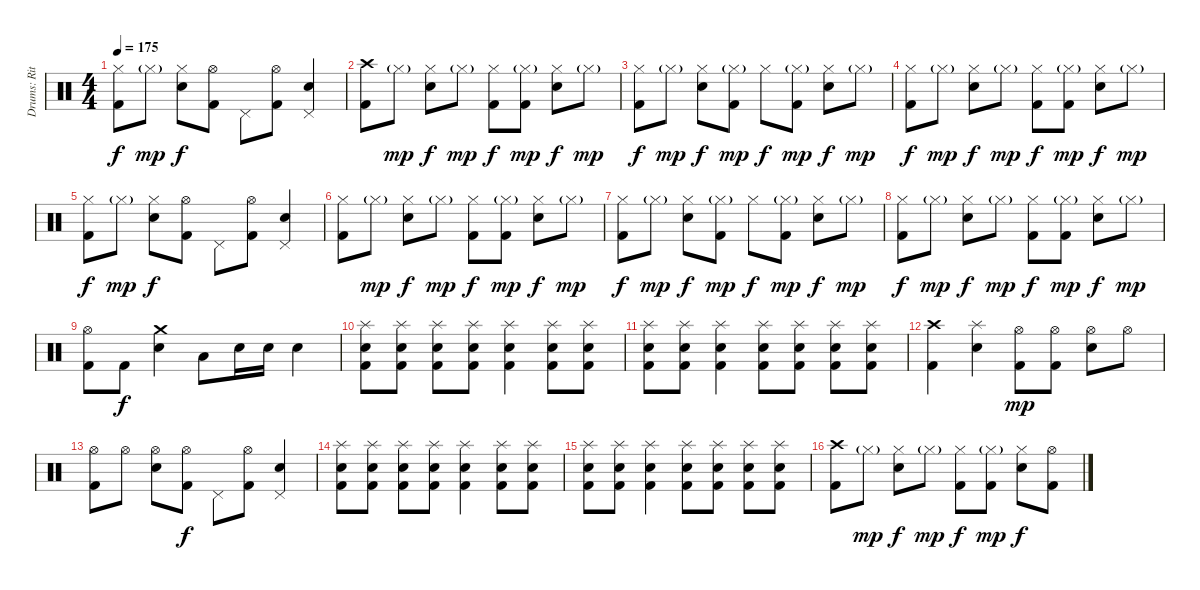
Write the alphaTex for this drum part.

\track ("Drums: Ritsu Tainaka" "Drums: Rit") {instrument percussion}
\staff {score}
\articulation defaults
\ts (4 4)
\tempo 175
\clef neutral
\ks c
("Hi-Hat (closed)" "Kick (hit) 2").8{dy f} "Hi-Hat (closed)"{g}.8{dy mp} ("Hi-Hat (closed)" "Snare (hit) 2").8{dy f} ("Hi-Hat (open)" "Kick (hit) 2").8 "Pedal Hi-Hat (hit)".8 ("Hi-Hat (open)" "Kick (hit) 2").8 ("Pedal Hi-Hat (hit)" "Snare (hit) 2").4 |
("Crash high (hit)" "Kick (hit) 2").8 "Hi-Hat (closed)"{g}.8{dy mp} ("Hi-Hat (closed)" "Snare (hit) 2").8{dy f} "Hi-Hat (closed)"{g}.8{dy mp} ("Hi-Hat (closed)" "Kick (hit) 2").8{dy f} ("Hi-Hat (closed)"{g} "Kick (hit) 2").8{dy mp} ("Hi-Hat (closed)" "Snare (hit) 2").8{dy f} "Hi-Hat (closed)"{g}.8{dy mp} |
("Hi-Hat (closed)" "Kick (hit) 2").8{dy f} "Hi-Hat (closed)"{g}.8{dy mp} ("Hi-Hat (closed)" "Snare (hit) 2").8{dy f} ("Hi-Hat (closed)"{g} "Kick (hit) 2").8{dy mp} "Hi-Hat (closed)".8{dy f} ("Hi-Hat (closed)"{g} "Kick (hit) 2").8{dy mp} ("Hi-Hat (closed)" "Snare (hit) 2").8{dy f} "Hi-Hat (closed)"{g}.8{dy mp} |
("Hi-Hat (closed)" "Kick (hit) 2").8{dy f} "Hi-Hat (closed)"{g}.8{dy mp} ("Hi-Hat (closed)" "Snare (hit) 2").8{dy f} "Hi-Hat (closed)"{g}.8{dy mp} ("Hi-Hat (closed)" "Kick (hit) 2").8{dy f} ("Hi-Hat (closed)"{g} "Kick (hit) 2").8{dy mp} ("Hi-Hat (closed)" "Snare (hit) 2").8{dy f} "Hi-Hat (closed)"{g}.8{dy mp} |
("Hi-Hat (closed)" "Kick (hit) 2").8{dy f} "Hi-Hat (closed)"{g}.8{dy mp} ("Hi-Hat (closed)" "Snare (hit) 2").8{dy f} ("Hi-Hat (open)" "Kick (hit) 2").8 "Pedal Hi-Hat (hit)".8 ("Hi-Hat (open)" "Kick (hit) 2").8 ("Pedal Hi-Hat (hit)" "Snare (hit) 2").4 |
("Hi-Hat (closed)" "Kick (hit) 2").8 "Hi-Hat (closed)"{g}.8{dy mp} ("Hi-Hat (closed)" "Snare (hit) 2").8{dy f} "Hi-Hat (closed)"{g}.8{dy mp} ("Hi-Hat (closed)" "Kick (hit) 2").8{dy f} ("Hi-Hat (closed)"{g} "Kick (hit) 2").8{dy mp} ("Hi-Hat (closed)" "Snare (hit) 2").8{dy f} "Hi-Hat (closed)"{g}.8{dy mp} |
("Hi-Hat (closed)" "Kick (hit) 2").8{dy f} "Hi-Hat (closed)"{g}.8{dy mp} ("Hi-Hat (closed)" "Snare (hit) 2").8{dy f} ("Hi-Hat (closed)"{g} "Kick (hit) 2").8{dy mp} "Hi-Hat (closed)".8{dy f} ("Hi-Hat (closed)"{g} "Kick (hit) 2").8{dy mp} ("Hi-Hat (closed)" "Snare (hit) 2").8{dy f} "Hi-Hat (closed)"{g}.8{dy mp} |
("Hi-Hat (closed)" "Kick (hit) 2").8{dy f} "Hi-Hat (closed)"{g}.8{dy mp} ("Hi-Hat (closed)" "Snare (hit) 2").8{dy f} "Hi-Hat (closed)"{g}.8{dy mp} ("Hi-Hat (closed)" "Kick (hit) 2").8{dy f} ("Hi-Hat (closed)"{g} "Kick (hit) 2").8{dy mp} ("Hi-Hat (closed)" "Snare (hit) 2").8{dy f} "Hi-Hat (closed)"{g}.8{dy mp} |
("Hi-Hat (open)" "Kick (hit) 2").8 "Kick (hit) 2".8{dy f} ("Crash medium (hit)" "Snare (hit) 2").4 "Low Tom (hit)".8 "Snare (hit) 2".16 "Snare (hit) 2".16 "Snare (hit) 2".4 |
("Splash (hit)" "Snare (hit) 2" "Kick (hit) 2").8 ("Splash (hit)" "Snare (hit) 2" "Kick (hit) 2").8 ("Splash (hit)" "Snare (hit) 2" "Kick (hit) 2").8 ("Splash (hit)" "Snare (hit) 2" "Kick (hit) 2").8 ("Splash (hit)" "Snare (hit) 2" "Kick (hit) 2").4 ("Splash (hit)" "Snare (hit) 2" "Kick (hit) 2").8 ("Splash (hit)" "Snare (hit) 2" "Kick (hit) 2").8 |
("Splash (hit)" "Snare (hit) 2" "Kick (hit) 2").8 ("Splash (hit)" "Snare (hit) 2" "Kick (hit) 2").8 ("Splash (hit)" "Snare (hit) 2" "Kick (hit) 2").4 ("Splash (hit)" "Snare (hit) 2" "Kick (hit) 2").8 ("Splash (hit)" "Snare (hit) 2" "Kick (hit) 2").8 ("Splash (hit)" "Snare (hit) 2" "Kick (hit) 2").8 ("Splash (hit)" "Snare (hit) 2" "Kick (hit) 2").8 |
("Crash high (hit)" "Kick (hit) 2").4 ("Splash (hit)" "Snare (hit) 2").4 ("Hi-Hat (open)" "Kick (hit) 2").8{dy mp} ("Hi-Hat (open)" "Kick (hit) 2").8 ("Hi-Hat (open)" "Snare (hit) 2").8 "Hi-Hat (open)".8 |
("Hi-Hat (open)" "Kick (hit) 2").8 "Hi-Hat (open)".8 ("Hi-Hat (open)" "Snare (hit) 2").8 ("Hi-Hat (open)" "Kick (hit) 2").8{dy f} "Pedal Hi-Hat (hit)".8 ("Hi-Hat (open)" "Kick (hit) 2").8 ("Pedal Hi-Hat (hit)" "Snare (hit) 2").4 |
("Splash (hit)" "Snare (hit) 2" "Kick (hit) 2").8 ("Splash (hit)" "Snare (hit) 2" "Kick (hit) 2").8 ("Splash (hit)" "Snare (hit) 2" "Kick (hit) 2").8 ("Splash (hit)" "Snare (hit) 2" "Kick (hit) 2").8 ("Splash (hit)" "Snare (hit) 2" "Kick (hit) 2").4 ("Splash (hit)" "Snare (hit) 2" "Kick (hit) 2").8 ("Splash (hit)" "Snare (hit) 2" "Kick (hit) 2").8 |
("Splash (hit)" "Snare (hit) 2" "Kick (hit) 2").8 ("Splash (hit)" "Snare (hit) 2" "Kick (hit) 2").8 ("Splash (hit)" "Snare (hit) 2" "Kick (hit) 2").4 ("Splash (hit)" "Snare (hit) 2" "Kick (hit) 2").8 ("Splash (hit)" "Snare (hit) 2" "Kick (hit) 2").8 ("Splash (hit)" "Snare (hit) 2" "Kick (hit) 2").8 ("Splash (hit)" "Snare (hit) 2" "Kick (hit) 2").8 |
("Crash high (hit)" "Kick (hit) 2").8 "Hi-Hat (closed)"{g}.8{dy mp} ("Hi-Hat (closed)" "Snare (hit) 2").8{dy f} "Hi-Hat (closed)"{g}.8{dy mp} ("Hi-Hat (closed)" "Kick (hit) 2").8{dy f} ("Hi-Hat (closed)"{g} "Kick (hit) 2").8{dy mp} ("Hi-Hat (closed)" "Snare (hit) 2").8{dy f} ("Hi-Hat (open)" "Kick (hit) 2").8
